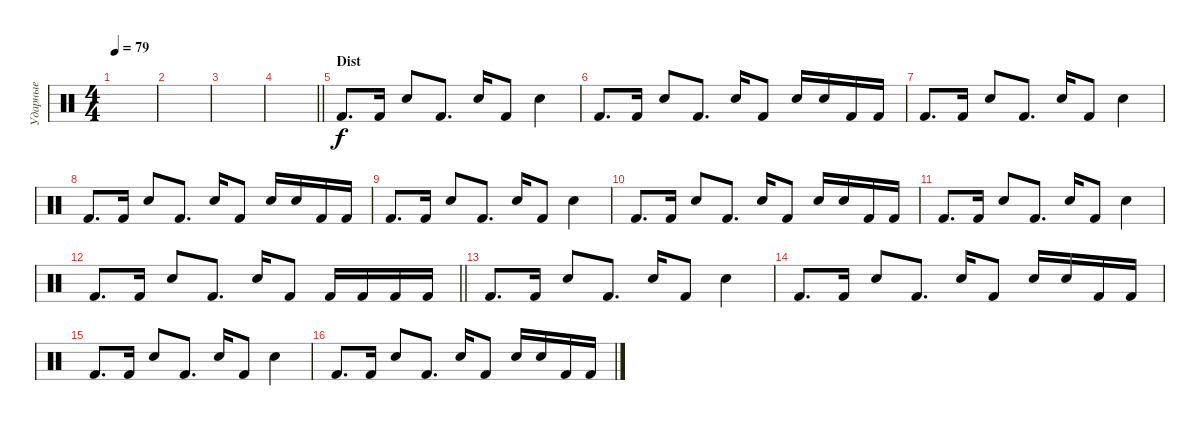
\track ("Ударные" "Ударные") {instrument percussion}
\staff {score}
\articulation defaults
\ts (4 4)
\tempo 79
\clef neutral
\ks c
|
|
|
\barLineRight lightlight
|
\section ("" "Dist")
"Kick (hit) 2".8{d} "Kick (hit) 2".16 "Snare (hit) 2".8 "Kick (hit) 2".8{d} "Snare (hit) 2".16 "Kick (hit) 2".8 "Snare (hit) 2".4 |
"Kick (hit) 2".8{d} "Kick (hit) 2".16 "Snare (hit) 2".8 "Kick (hit) 2".8{d} "Snare (hit) 2".16 "Kick (hit) 2".8 "Snare (hit) 2".16 "Snare (hit) 2".16 "Kick (hit) 2".16 "Kick (hit) 2".16 |
"Kick (hit) 2".8{d} "Kick (hit) 2".16 "Snare (hit) 2".8 "Kick (hit) 2".8{d} "Snare (hit) 2".16 "Kick (hit) 2".8 "Snare (hit) 2".4 |
"Kick (hit) 2".8{d} "Kick (hit) 2".16 "Snare (hit) 2".8 "Kick (hit) 2".8{d} "Snare (hit) 2".16 "Kick (hit) 2".8 "Snare (hit) 2".16 "Snare (hit) 2".16 "Kick (hit) 2".16 "Kick (hit) 2".16 |
"Kick (hit) 2".8{d} "Kick (hit) 2".16 "Snare (hit) 2".8 "Kick (hit) 2".8{d} "Snare (hit) 2".16 "Kick (hit) 2".8 "Snare (hit) 2".4 |
"Kick (hit) 2".8{d} "Kick (hit) 2".16 "Snare (hit) 2".8 "Kick (hit) 2".8{d} "Snare (hit) 2".16 "Kick (hit) 2".8 "Snare (hit) 2".16 "Snare (hit) 2".16 "Kick (hit) 2".16 "Kick (hit) 2".16 |
"Kick (hit) 2".8{d} "Kick (hit) 2".16 "Snare (hit) 2".8 "Kick (hit) 2".8{d} "Snare (hit) 2".16 "Kick (hit) 2".8 "Snare (hit) 2".4 |
\barLineRight lightlight "Kick (hit) 2".8{d} "Kick (hit) 2".16 "Snare (hit) 2".8 "Kick (hit) 2".8{d} "Snare (hit) 2".16 "Kick (hit) 2".8 "Kick (hit) 2".16 "Kick (hit) 2".16 "Kick (hit) 2".16 "Kick (hit) 2".16
|
"Kick (hit) 2".8{d} "Kick (hit) 2".16 "Snare (hit) 2".8 "Kick (hit) 2".8{d} "Snare (hit) 2".16 "Kick (hit) 2".8 "Snare (hit) 2".4 |
"Kick (hit) 2".8{d} "Kick (hit) 2".16 "Snare (hit) 2".8 "Kick (hit) 2".8{d} "Snare (hit) 2".16 "Kick (hit) 2".8 "Snare (hit) 2".16 "Snare (hit) 2".16 "Kick (hit) 2".16 "Kick (hit) 2".16 |
"Kick (hit) 2".8{d} "Kick (hit) 2".16 "Snare (hit) 2".8 "Kick (hit) 2".8{d} "Snare (hit) 2".16 "Kick (hit) 2".8 "Snare (hit) 2".4 |
"Kick (hit) 2".8{d} "Kick (hit) 2".16 "Snare (hit) 2".8 "Kick (hit) 2".8{d} "Snare (hit) 2".16 "Kick (hit) 2".8 "Snare (hit) 2".16 "Snare (hit) 2".16 "Kick (hit) 2".16 "Kick (hit) 2".16
